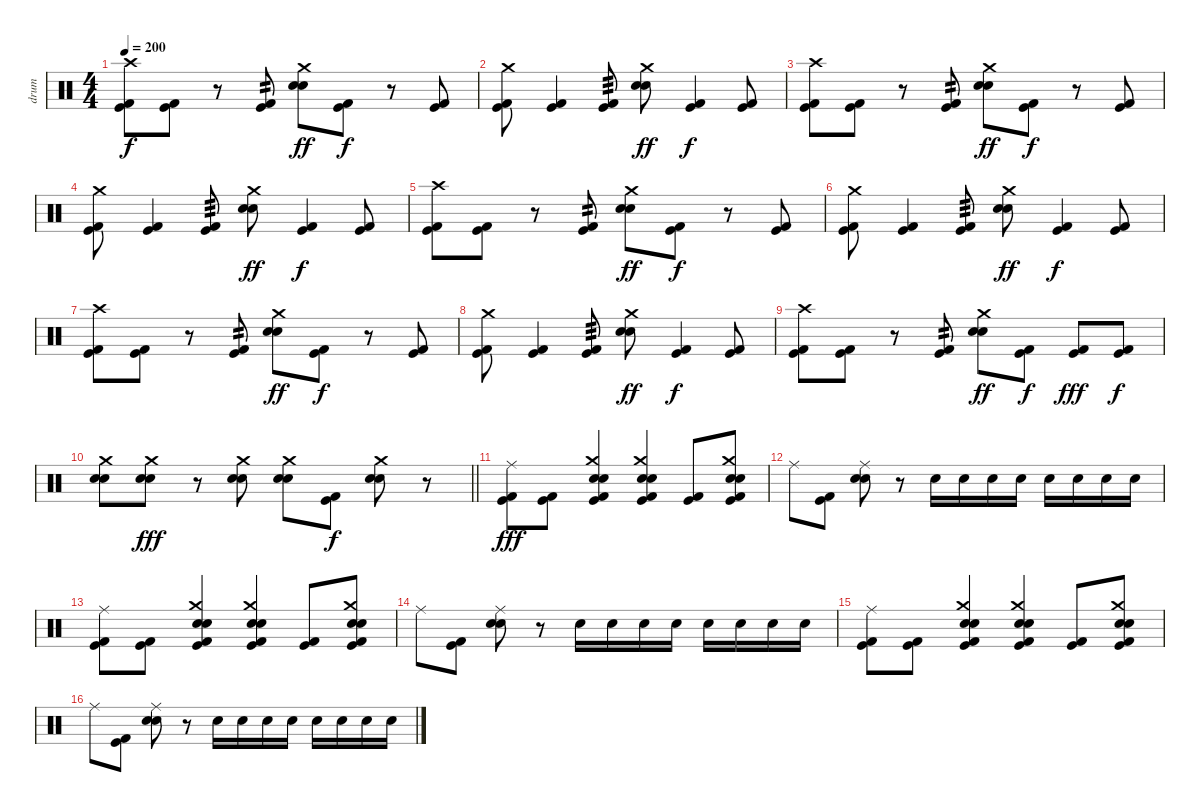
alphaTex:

\track ("drum" "drum") {instrument percussion}
\staff {score}
\articulation defaults
\ts (4 4)
\tempo 200
\clef neutral
\ks c
("Crash high (hit)" "Kick (hit)" "Kick (hit) 2").8{dy f} ("Kick (hit)" "Kick (hit) 2").8 r.8 ("Kick (hit)" "Kick (hit) 2").8{tp 2} ("Crash medium (hit)" "Electric Snare (hit)" "Electric Snare (hit)").8{dy ff} ("Kick (hit)" "Kick (hit) 2").8{dy f} r.8 ("Kick (hit)" "Kick (hit) 2").8 |
("Crash medium (hit)" "Kick (hit)" "Kick (hit) 2").8 ("Kick (hit)" "Kick (hit) 2").4 ("Kick (hit)" "Kick (hit) 2").8{tp 3} ("Crash medium (hit)" "Electric Snare (hit)" "Electric Snare (hit)").8{dy ff} ("Kick (hit)" "Kick (hit) 2").4{dy f} ("Kick (hit)" "Kick (hit) 2").8 |
("Crash high (hit)" "Kick (hit)" "Kick (hit) 2").8 ("Kick (hit)" "Kick (hit) 2").8 r.8 ("Kick (hit)" "Kick (hit) 2").8{tp 2} ("Crash medium (hit)" "Electric Snare (hit)" "Electric Snare (hit)").8{dy ff} ("Kick (hit)" "Kick (hit) 2").8{dy f} r.8 ("Kick (hit)" "Kick (hit) 2").8 |
("Crash medium (hit)" "Kick (hit)" "Kick (hit) 2").8 ("Kick (hit)" "Kick (hit) 2").4 ("Kick (hit)" "Kick (hit) 2").8{tp 3} ("Crash medium (hit)" "Electric Snare (hit)" "Electric Snare (hit)").8{dy ff} ("Kick (hit)" "Kick (hit) 2").4{dy f} ("Kick (hit)" "Kick (hit) 2").8 |
("Crash high (hit)" "Kick (hit)" "Kick (hit) 2").8 ("Kick (hit)" "Kick (hit) 2").8 r.8 ("Kick (hit)" "Kick (hit) 2").8{tp 2} ("Crash medium (hit)" "Electric Snare (hit)" "Electric Snare (hit)").8{dy ff} ("Kick (hit)" "Kick (hit) 2").8{dy f} r.8 ("Kick (hit)" "Kick (hit) 2").8 |
("Crash medium (hit)" "Kick (hit)" "Kick (hit) 2").8 ("Kick (hit)" "Kick (hit) 2").4 ("Kick (hit)" "Kick (hit) 2").8{tp 3} ("Crash medium (hit)" "Electric Snare (hit)" "Electric Snare (hit)").8{dy ff} ("Kick (hit)" "Kick (hit) 2").4{dy f} ("Kick (hit)" "Kick (hit) 2").8 |
("Crash high (hit)" "Kick (hit)" "Kick (hit) 2").8 ("Kick (hit)" "Kick (hit) 2").8 r.8 ("Kick (hit)" "Kick (hit) 2").8{tp 2} ("Crash medium (hit)" "Electric Snare (hit)" "Electric Snare (hit)").8{dy ff} ("Kick (hit)" "Kick (hit) 2").8{dy f} r.8 ("Kick (hit)" "Kick (hit) 2").8 |
("Crash medium (hit)" "Kick (hit)" "Kick (hit) 2").8 ("Kick (hit)" "Kick (hit) 2").4 ("Kick (hit)" "Kick (hit) 2").8{tp 3} ("Crash medium (hit)" "Electric Snare (hit)" "Electric Snare (hit)").8{dy ff} ("Kick (hit)" "Kick (hit) 2").4{dy f} ("Kick (hit)" "Kick (hit) 2").8 |
("Crash high (hit)" "Kick (hit)" "Kick (hit) 2").8 ("Kick (hit)" "Kick (hit) 2").8 r.8 ("Kick (hit)" "Kick (hit) 2").8{tp 2} ("Crash medium (hit)" "Electric Snare (hit)" "Electric Snare (hit)").8{dy ff} ("Kick (hit)" "Kick (hit) 2").8{dy f} ("Kick (hit)" "Kick (hit) 2").8{dy fff} ("Kick (hit)" "Kick (hit) 2").8{dy f} |
\barLineRight lightlight
("Crash medium (hit)" "Electric Snare (hit)" "Electric Snare (hit)").8 ("Crash medium (hit)" "Electric Snare (hit)" "Electric Snare (hit)").8{dy fff} r.8 ("Crash medium (hit)" "Electric Snare (hit)" "Electric Snare (hit)").8 ("Crash medium (hit)" "Electric Snare (hit)" "Electric Snare (hit)").8 ("Kick (hit)" "Kick (hit) 2").8{dy f} ("Crash medium (hit)" "Electric Snare (hit)" "Electric Snare (hit)").8 r.8 |
\section ("" "")
("Ride (middle)" "Kick (hit)" "Kick (hit) 2").8{dy fff} ("Kick (hit)" "Kick (hit) 2").8 ("Crash medium (hit)" "Electric Snare (hit)" "Electric Snare (hit)" "Kick (hit)" "Kick (hit) 2").4 ("Crash medium (hit)" "Electric Snare (hit)" "Electric Snare (hit)" "Kick (hit)" "Kick (hit) 2").4 ("Kick (hit)" "Kick (hit) 2").8 ("Crash medium (hit)" "Electric Snare (hit)" "Electric Snare (hit)" "Kick (hit)" "Kick (hit) 2").8 |
"Ride (middle)".8 ("Kick (hit)" "Kick (hit) 2").8 ("Ride (middle)" "Electric Snare (hit)" "Electric Snare (hit)").8 r.8 "Electric Snare (hit)".16 "Electric Snare (hit)".16 "Electric Snare (hit)".16 "Electric Snare (hit)".16 "Electric Snare (hit)".16 "Electric Snare (hit)".16 "Electric Snare (hit)".16 "Electric Snare (hit)".16 |
("Ride (middle)" "Kick (hit)" "Kick (hit) 2").8 ("Kick (hit)" "Kick (hit) 2").8 ("Crash medium (hit)" "Electric Snare (hit)" "Electric Snare (hit)" "Kick (hit)" "Kick (hit) 2").4 ("Crash medium (hit)" "Electric Snare (hit)" "Electric Snare (hit)" "Kick (hit)" "Kick (hit) 2").4 ("Kick (hit)" "Kick (hit) 2").8 ("Crash medium (hit)" "Electric Snare (hit)" "Electric Snare (hit)" "Kick (hit)" "Kick (hit) 2").8 |
"Ride (middle)".8 ("Kick (hit)" "Kick (hit) 2").8 ("Ride (middle)" "Electric Snare (hit)" "Electric Snare (hit)").8 r.8 "Electric Snare (hit)".16 "Electric Snare (hit)".16 "Electric Snare (hit)".16 "Electric Snare (hit)".16 "Electric Snare (hit)".16 "Electric Snare (hit)".16 "Electric Snare (hit)".16 "Electric Snare (hit)".16 |
("Ride (middle)" "Kick (hit)" "Kick (hit) 2").8 ("Kick (hit)" "Kick (hit) 2").8 ("Crash medium (hit)" "Electric Snare (hit)" "Electric Snare (hit)" "Kick (hit)" "Kick (hit) 2").4 ("Crash medium (hit)" "Electric Snare (hit)" "Electric Snare (hit)" "Kick (hit)" "Kick (hit) 2").4 ("Kick (hit)" "Kick (hit) 2").8 ("Crash medium (hit)" "Electric Snare (hit)" "Electric Snare (hit)" "Kick (hit)" "Kick (hit) 2").8 |
"Ride (middle)".8 ("Kick (hit)" "Kick (hit) 2").8 ("Ride (middle)" "Electric Snare (hit)" "Electric Snare (hit)").8 r.8 "Electric Snare (hit)".16 "Electric Snare (hit)".16 "Electric Snare (hit)".16 "Electric Snare (hit)".16 "Electric Snare (hit)".16 "Electric Snare (hit)".16 "Electric Snare (hit)".16 "Electric Snare (hit)".16
